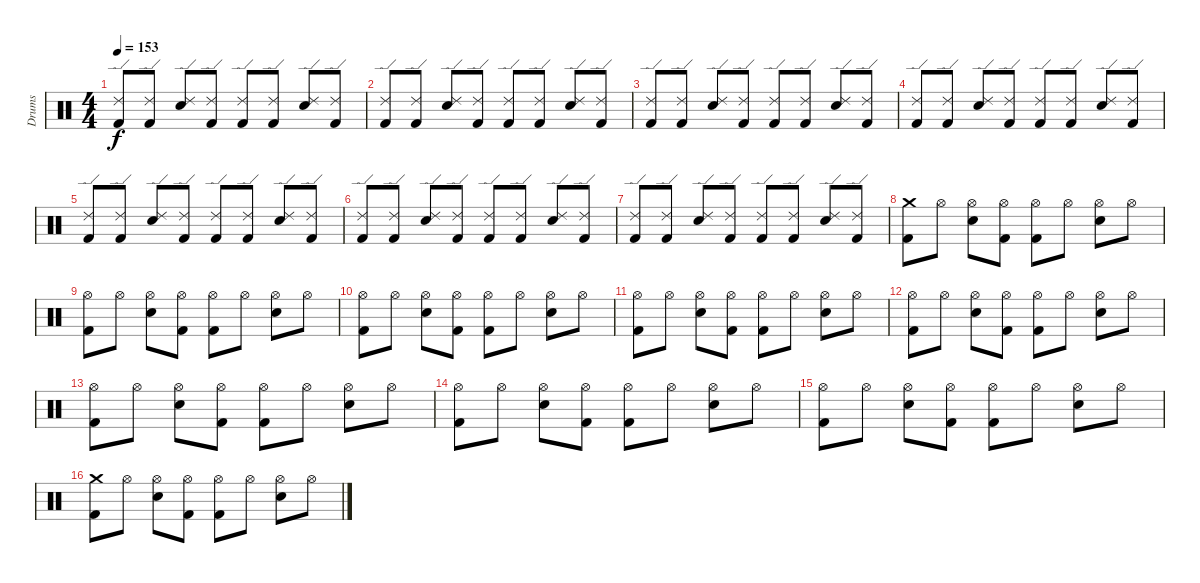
\track ("Drums" "Drums") {instrument percussion}
\staff {score}
\articulation defaults
\ts (4 4)
\tempo 153
\clef neutral
\ks c
("Kick (hit) 2" "Ride (edge) 2").8{dy f} ("Kick (hit) 2" "Ride (edge) 2").8 ("Electric Snare (hit)" "Ride (edge) 2").8 ("Kick (hit) 2" "Ride (edge) 2").8 ("Kick (hit) 2" "Ride (edge) 2").8 ("Kick (hit) 2" "Ride (edge) 2").8 ("Electric Snare (hit)" "Ride (edge) 2").8 ("Kick (hit) 2" "Ride (edge) 2").8 |
("Kick (hit) 2" "Ride (edge) 2").8 ("Kick (hit) 2" "Ride (edge) 2").8 ("Electric Snare (hit)" "Ride (edge) 2").8 ("Kick (hit) 2" "Ride (edge) 2").8 ("Kick (hit) 2" "Ride (edge) 2").8 ("Kick (hit) 2" "Ride (edge) 2").8 ("Electric Snare (hit)" "Ride (edge) 2").8 ("Kick (hit) 2" "Ride (edge) 2").8 |
("Kick (hit) 2" "Ride (edge) 2").8 ("Kick (hit) 2" "Ride (edge) 2").8 ("Electric Snare (hit)" "Ride (edge) 2").8 ("Kick (hit) 2" "Ride (edge) 2").8 ("Kick (hit) 2" "Ride (edge) 2").8 ("Kick (hit) 2" "Ride (edge) 2").8 ("Electric Snare (hit)" "Ride (edge) 2").8 ("Kick (hit) 2" "Ride (edge) 2").8 |
("Kick (hit) 2" "Ride (edge) 2").8 ("Kick (hit) 2" "Ride (edge) 2").8 ("Electric Snare (hit)" "Ride (edge) 2").8 ("Kick (hit) 2" "Ride (edge) 2").8 ("Kick (hit) 2" "Ride (edge) 2").8 ("Kick (hit) 2" "Ride (edge) 2").8 ("Electric Snare (hit)" "Ride (edge) 2").8 ("Kick (hit) 2" "Ride (edge) 2").8 |
("Kick (hit) 2" "Ride (edge) 2").8 ("Kick (hit) 2" "Ride (edge) 2").8 ("Electric Snare (hit)" "Ride (edge) 2").8 ("Kick (hit) 2" "Ride (edge) 2").8 ("Kick (hit) 2" "Ride (edge) 2").8 ("Kick (hit) 2" "Ride (edge) 2").8 ("Electric Snare (hit)" "Ride (edge) 2").8 ("Kick (hit) 2" "Ride (edge) 2").8 |
("Kick (hit) 2" "Ride (edge) 2").8 ("Kick (hit) 2" "Ride (edge) 2").8 ("Electric Snare (hit)" "Ride (edge) 2").8 ("Kick (hit) 2" "Ride (edge) 2").8 ("Kick (hit) 2" "Ride (edge) 2").8 ("Kick (hit) 2" "Ride (edge) 2").8 ("Electric Snare (hit)" "Ride (edge) 2").8 ("Kick (hit) 2" "Ride (edge) 2").8 |
("Kick (hit) 2" "Ride (edge) 2").8 ("Kick (hit) 2" "Ride (edge) 2").8 ("Electric Snare (hit)" "Ride (edge) 2").8 ("Kick (hit) 2" "Ride (edge) 2").8 ("Kick (hit) 2" "Ride (edge) 2").8 ("Kick (hit) 2" "Ride (edge) 2").8 ("Electric Snare (hit)" "Ride (edge) 2").8 ("Kick (hit) 2" "Ride (edge) 2").8 |
("Kick (hit) 2" "Crash medium (hit)").8 "Hi-Hat (open)".8 ("Electric Snare (hit)" "Hi-Hat (open)").8 ("Kick (hit) 2" "Hi-Hat (open)").8 ("Kick (hit) 2" "Hi-Hat (open)").8 "Hi-Hat (open)".8 ("Electric Snare (hit)" "Hi-Hat (open)").8 "Hi-Hat (open)".8 |
("Kick (hit) 2" "Hi-Hat (open)").8 "Hi-Hat (open)".8 ("Electric Snare (hit)" "Hi-Hat (open)").8 ("Kick (hit) 2" "Hi-Hat (open)").8 ("Kick (hit) 2" "Hi-Hat (open)").8 "Hi-Hat (open)".8 ("Electric Snare (hit)" "Hi-Hat (open)").8 "Hi-Hat (open)".8 |
("Kick (hit) 2" "Hi-Hat (open)").8 "Hi-Hat (open)".8 ("Electric Snare (hit)" "Hi-Hat (open)").8 ("Kick (hit) 2" "Hi-Hat (open)").8 ("Kick (hit) 2" "Hi-Hat (open)").8 "Hi-Hat (open)".8 ("Electric Snare (hit)" "Hi-Hat (open)").8 "Hi-Hat (open)".8 |
("Kick (hit) 2" "Hi-Hat (open)").8 "Hi-Hat (open)".8 ("Electric Snare (hit)" "Hi-Hat (open)").8 ("Kick (hit) 2" "Hi-Hat (open)").8 ("Kick (hit) 2" "Hi-Hat (open)").8 "Hi-Hat (open)".8 ("Electric Snare (hit)" "Hi-Hat (open)").8 "Hi-Hat (open)".8 |
("Kick (hit) 2" "Hi-Hat (open)").8 "Hi-Hat (open)".8 ("Electric Snare (hit)" "Hi-Hat (open)").8 ("Kick (hit) 2" "Hi-Hat (open)").8 ("Kick (hit) 2" "Hi-Hat (open)").8 "Hi-Hat (open)".8 ("Electric Snare (hit)" "Hi-Hat (open)").8 "Hi-Hat (open)".8 |
("Kick (hit) 2" "Hi-Hat (open)").8 "Hi-Hat (open)".8 ("Electric Snare (hit)" "Hi-Hat (open)").8 ("Kick (hit) 2" "Hi-Hat (open)").8 ("Kick (hit) 2" "Hi-Hat (open)").8 "Hi-Hat (open)".8 ("Electric Snare (hit)" "Hi-Hat (open)").8 "Hi-Hat (open)".8 |
("Kick (hit) 2" "Hi-Hat (open)").8 "Hi-Hat (open)".8 ("Electric Snare (hit)" "Hi-Hat (open)").8 ("Kick (hit) 2" "Hi-Hat (open)").8 ("Kick (hit) 2" "Hi-Hat (open)").8 "Hi-Hat (open)".8 ("Electric Snare (hit)" "Hi-Hat (open)").8 "Hi-Hat (open)".8 |
("Kick (hit) 2" "Hi-Hat (open)").8 "Hi-Hat (open)".8 ("Electric Snare (hit)" "Hi-Hat (open)").8 ("Kick (hit) 2" "Hi-Hat (open)").8 ("Kick (hit) 2" "Hi-Hat (open)").8 "Hi-Hat (open)".8 ("Electric Snare (hit)" "Hi-Hat (open)").8 "Hi-Hat (open)".8 |
("Kick (hit) 2" "Crash medium (hit)").8 "Hi-Hat (open)".8 ("Electric Snare (hit)" "Hi-Hat (open)").8 ("Kick (hit) 2" "Hi-Hat (open)").8 ("Kick (hit) 2" "Hi-Hat (open)").8 "Hi-Hat (open)".8 ("Electric Snare (hit)" "Hi-Hat (open)").8 "Hi-Hat (open)".8
